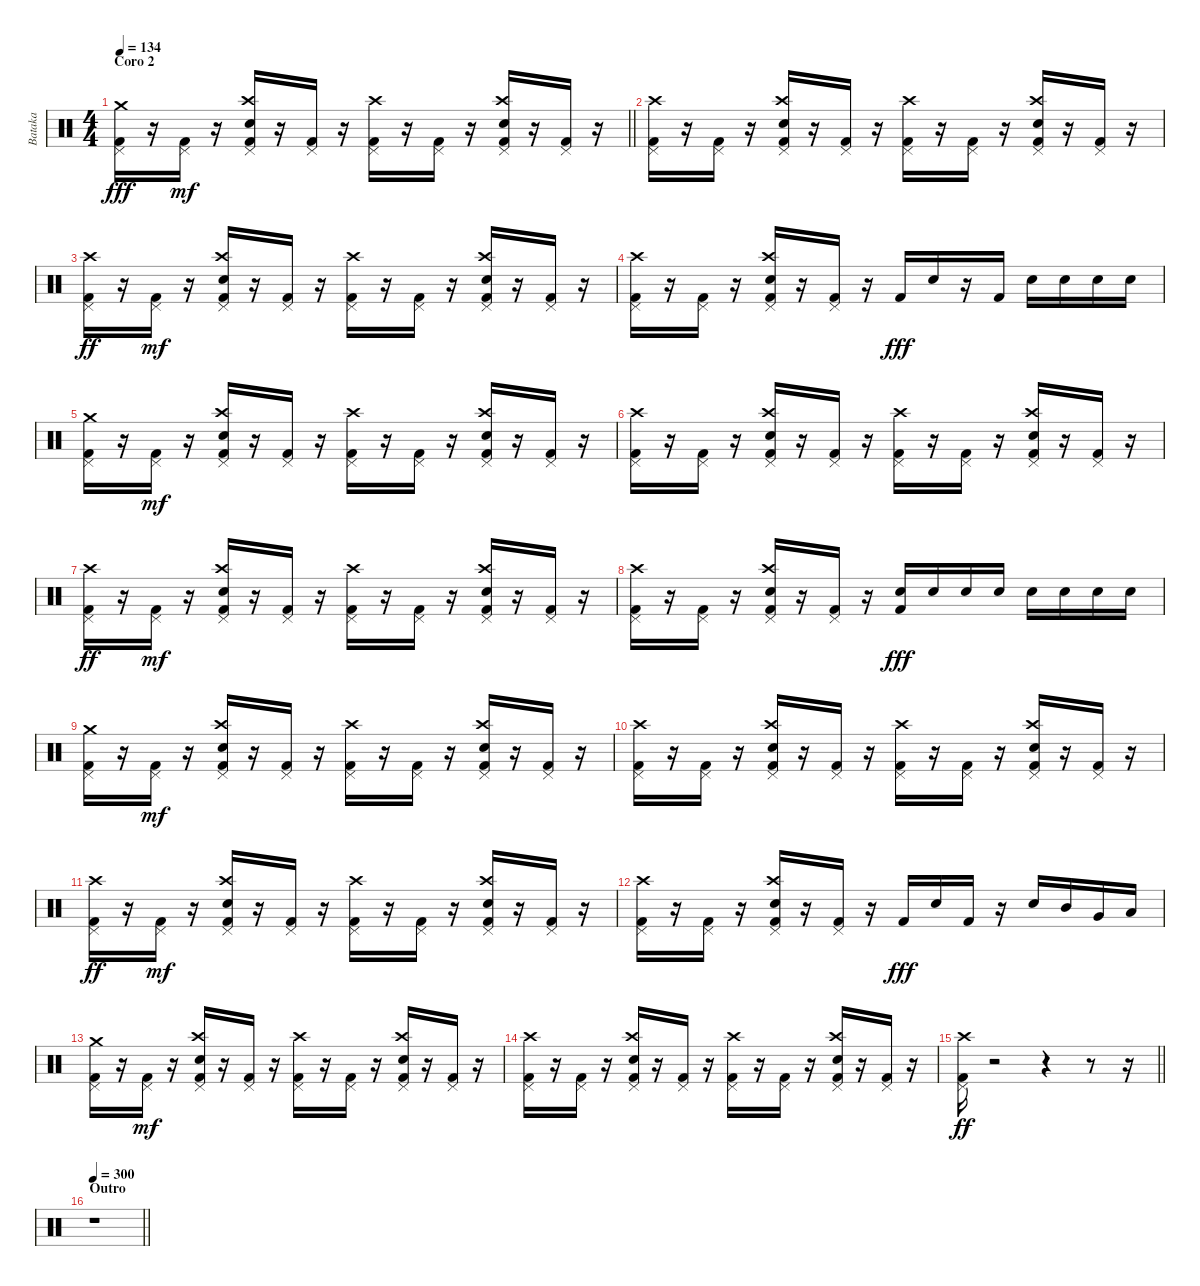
\track ("Bataka" "Bataka") {instrument percussion}
\staff {score}
\articulation defaults
\ts (4 4)
\section ("" "Coro 2")
\tempo 134
\clef neutral
\barLineRight lightlight
\ks c
("Kick (hit) 2" "Pedal Hi-Hat (hit)" "Crash medium (hit)").16{dy fff} r.16 ("Kick (hit) 2" "Pedal Hi-Hat (hit)").16{dy mf} r.16 ("Kick (hit) 2" "Crash high (hit)" "Snare (hit) 2" "Pedal Hi-Hat (hit)").16 r.16 ("Kick (hit) 2" "Pedal Hi-Hat (hit)").16 r.16 ("Kick (hit) 2" "Crash high (hit)" "Pedal Hi-Hat (hit)").16 r.16 ("Kick (hit) 2" "Pedal Hi-Hat (hit)").16 r.16 ("Kick (hit) 2" "Crash high (hit)" "Snare (hit) 2" "Pedal Hi-Hat (hit)").16 r.16 ("Kick (hit) 2" "Pedal Hi-Hat (hit)").16 r.16 |
("Kick (hit) 2" "Crash high (hit)" "Pedal Hi-Hat (hit)").16 r.16 ("Kick (hit) 2" "Pedal Hi-Hat (hit)").16 r.16 ("Kick (hit) 2" "Crash high (hit)" "Snare (hit) 2" "Pedal Hi-Hat (hit)").16 r.16 ("Kick (hit) 2" "Pedal Hi-Hat (hit)").16 r.16 ("Kick (hit) 2" "Crash high (hit)" "Pedal Hi-Hat (hit)").16 r.16 ("Kick (hit) 2" "Pedal Hi-Hat (hit)").16 r.16 ("Kick (hit) 2" "Crash high (hit)" "Snare (hit) 2" "Pedal Hi-Hat (hit)").16 r.16 ("Kick (hit) 2" "Pedal Hi-Hat (hit)").16 r.16 |
("Kick (hit) 2" "Pedal Hi-Hat (hit)" "Crash high (hit)").16{dy ff} r.16 ("Kick (hit) 2" "Pedal Hi-Hat (hit)").16{dy mf} r.16 ("Kick (hit) 2" "Crash high (hit)" "Snare (hit) 2" "Pedal Hi-Hat (hit)").16 r.16 ("Kick (hit) 2" "Pedal Hi-Hat (hit)").16 r.16 ("Kick (hit) 2" "Crash high (hit)" "Pedal Hi-Hat (hit)").16 r.16 ("Kick (hit) 2" "Pedal Hi-Hat (hit)").16 r.16 ("Kick (hit) 2" "Crash high (hit)" "Snare (hit) 2" "Pedal Hi-Hat (hit)").16 r.16 ("Kick (hit) 2" "Pedal Hi-Hat (hit)").16 r.16 |
("Kick (hit) 2" "Crash high (hit)" "Pedal Hi-Hat (hit)").16 r.16 ("Kick (hit) 2" "Pedal Hi-Hat (hit)").16 r.16 ("Kick (hit) 2" "Crash high (hit)" "Snare (hit) 2" "Pedal Hi-Hat (hit)").16 r.16 ("Kick (hit) 2" "Pedal Hi-Hat (hit)").16 r.16 "Kick (hit) 2".16{dy fff} "Snare (hit) 2".16 r.16 "Kick (hit) 2".16 "Snare (hit) 2".16 "Snare (hit) 2".16 "Snare (hit) 2".16 "Snare (hit) 2".16 |
("Kick (hit) 2" "Pedal Hi-Hat (hit)" "Crash medium (hit)").16 r.16 ("Kick (hit) 2" "Pedal Hi-Hat (hit)").16{dy mf} r.16 ("Kick (hit) 2" "Crash high (hit)" "Snare (hit) 2" "Pedal Hi-Hat (hit)").16 r.16 ("Kick (hit) 2" "Pedal Hi-Hat (hit)").16 r.16 ("Kick (hit) 2" "Crash high (hit)" "Pedal Hi-Hat (hit)").16 r.16 ("Kick (hit) 2" "Pedal Hi-Hat (hit)").16 r.16 ("Kick (hit) 2" "Crash high (hit)" "Snare (hit) 2" "Pedal Hi-Hat (hit)").16 r.16 ("Kick (hit) 2" "Pedal Hi-Hat (hit)").16 r.16 |
("Kick (hit) 2" "Crash high (hit)" "Pedal Hi-Hat (hit)").16 r.16 ("Kick (hit) 2" "Pedal Hi-Hat (hit)").16 r.16 ("Kick (hit) 2" "Crash high (hit)" "Snare (hit) 2" "Pedal Hi-Hat (hit)").16 r.16 ("Kick (hit) 2" "Pedal Hi-Hat (hit)").16 r.16 ("Kick (hit) 2" "Crash high (hit)" "Pedal Hi-Hat (hit)").16 r.16 ("Kick (hit) 2" "Pedal Hi-Hat (hit)").16 r.16 ("Kick (hit) 2" "Crash high (hit)" "Snare (hit) 2" "Pedal Hi-Hat (hit)").16 r.16 ("Kick (hit) 2" "Pedal Hi-Hat (hit)").16 r.16 |
("Kick (hit) 2" "Pedal Hi-Hat (hit)" "Crash high (hit)").16{dy ff} r.16 ("Kick (hit) 2" "Pedal Hi-Hat (hit)").16{dy mf} r.16 ("Kick (hit) 2" "Crash high (hit)" "Snare (hit) 2" "Pedal Hi-Hat (hit)").16 r.16 ("Kick (hit) 2" "Pedal Hi-Hat (hit)").16 r.16 ("Kick (hit) 2" "Crash high (hit)" "Pedal Hi-Hat (hit)").16 r.16 ("Kick (hit) 2" "Pedal Hi-Hat (hit)").16 r.16 ("Kick (hit) 2" "Crash high (hit)" "Snare (hit) 2" "Pedal Hi-Hat (hit)").16 r.16 ("Kick (hit) 2" "Pedal Hi-Hat (hit)").16 r.16 |
("Kick (hit) 2" "Crash high (hit)" "Pedal Hi-Hat (hit)").16 r.16 ("Kick (hit) 2" "Pedal Hi-Hat (hit)").16 r.16 ("Kick (hit) 2" "Crash high (hit)" "Snare (hit) 2" "Pedal Hi-Hat (hit)").16 r.16 ("Kick (hit) 2" "Pedal Hi-Hat (hit)").16 r.16 ("Kick (hit) 2" "Snare (hit) 2").16{dy fff} "Snare (hit) 2".16 "Snare (hit) 2".16 "Snare (hit) 2".16 "Snare (hit) 2".16 "Snare (hit) 2".16 "Snare (hit) 2".16 "Snare (hit) 2".16 |
("Kick (hit) 2" "Pedal Hi-Hat (hit)" "Crash medium (hit)").16 r.16 ("Kick (hit) 2" "Pedal Hi-Hat (hit)").16{dy mf} r.16 ("Kick (hit) 2" "Crash high (hit)" "Snare (hit) 2" "Pedal Hi-Hat (hit)").16 r.16 ("Kick (hit) 2" "Pedal Hi-Hat (hit)").16 r.16 ("Kick (hit) 2" "Crash high (hit)" "Pedal Hi-Hat (hit)").16 r.16 ("Kick (hit) 2" "Pedal Hi-Hat (hit)").16 r.16 ("Kick (hit) 2" "Crash high (hit)" "Snare (hit) 2" "Pedal Hi-Hat (hit)").16 r.16 ("Kick (hit) 2" "Pedal Hi-Hat (hit)").16 r.16 |
("Kick (hit) 2" "Crash high (hit)" "Pedal Hi-Hat (hit)").16 r.16 ("Kick (hit) 2" "Pedal Hi-Hat (hit)").16 r.16 ("Kick (hit) 2" "Crash high (hit)" "Snare (hit) 2" "Pedal Hi-Hat (hit)").16 r.16 ("Kick (hit) 2" "Pedal Hi-Hat (hit)").16 r.16 ("Kick (hit) 2" "Crash high (hit)" "Pedal Hi-Hat (hit)").16 r.16 ("Kick (hit) 2" "Pedal Hi-Hat (hit)").16 r.16 ("Kick (hit) 2" "Crash high (hit)" "Snare (hit) 2" "Pedal Hi-Hat (hit)").16 r.16 ("Kick (hit) 2" "Pedal Hi-Hat (hit)").16 r.16 |
("Kick (hit) 2" "Pedal Hi-Hat (hit)" "Crash high (hit)").16{dy ff} r.16 ("Kick (hit) 2" "Pedal Hi-Hat (hit)").16{dy mf} r.16 ("Kick (hit) 2" "Crash high (hit)" "Snare (hit) 2" "Pedal Hi-Hat (hit)").16 r.16 ("Kick (hit) 2" "Pedal Hi-Hat (hit)").16 r.16 ("Kick (hit) 2" "Crash high (hit)" "Pedal Hi-Hat (hit)").16 r.16 ("Kick (hit) 2" "Pedal Hi-Hat (hit)").16 r.16 ("Kick (hit) 2" "Crash high (hit)" "Snare (hit) 2" "Pedal Hi-Hat (hit)").16 r.16 ("Kick (hit) 2" "Pedal Hi-Hat (hit)").16 r.16 |
("Kick (hit) 2" "Crash high (hit)" "Pedal Hi-Hat (hit)").16 r.16 ("Kick (hit) 2" "Pedal Hi-Hat (hit)").16 r.16 ("Kick (hit) 2" "Crash high (hit)" "Snare (hit) 2" "Pedal Hi-Hat (hit)").16 r.16 ("Kick (hit) 2" "Pedal Hi-Hat (hit)").16 r.16 "Kick (hit) 2".16{dy fff} "Snare (hit) 2".16 "Kick (hit) 2".16 r.16 "Snare (hit) 2".16 "Mid Tom (hit)".16 "Very Low Tom (hit)".16 "Low Floor Tom (hit)".16 |
("Kick (hit) 2" "Pedal Hi-Hat (hit)" "Crash medium (hit)").16 r.16 ("Kick (hit) 2" "Pedal Hi-Hat (hit)").16{dy mf} r.16 ("Kick (hit) 2" "Crash high (hit)" "Snare (hit) 2" "Pedal Hi-Hat (hit)").16 r.16 ("Kick (hit) 2" "Pedal Hi-Hat (hit)").16 r.16 ("Kick (hit) 2" "Crash high (hit)" "Pedal Hi-Hat (hit)").16 r.16 ("Kick (hit) 2" "Pedal Hi-Hat (hit)").16 r.16 ("Kick (hit) 2" "Crash high (hit)" "Snare (hit) 2" "Pedal Hi-Hat (hit)").16 r.16 ("Kick (hit) 2" "Pedal Hi-Hat (hit)").16 r.16 |
("Kick (hit) 2" "Crash high (hit)" "Pedal Hi-Hat (hit)").16 r.16 ("Kick (hit) 2" "Pedal Hi-Hat (hit)").16 r.16 ("Kick (hit) 2" "Crash high (hit)" "Snare (hit) 2" "Pedal Hi-Hat (hit)").16 r.16 ("Kick (hit) 2" "Pedal Hi-Hat (hit)").16 r.16 ("Kick (hit) 2" "Crash high (hit)" "Pedal Hi-Hat (hit)").16 r.16 ("Kick (hit) 2" "Pedal Hi-Hat (hit)").16 r.16 ("Kick (hit) 2" "Crash high (hit)" "Snare (hit) 2" "Pedal Hi-Hat (hit)").16 r.16 ("Kick (hit) 2" "Pedal Hi-Hat (hit)").16 r.16 |
\barLineRight lightlight
("Kick (hit) 2" "Pedal Hi-Hat (hit)" "Crash high (hit)").16{dy ff} r.2 r.4 r.8 r.16 |
\section ("" "Outro")
\tempo 300
\barLineRight lightlight
r.1
